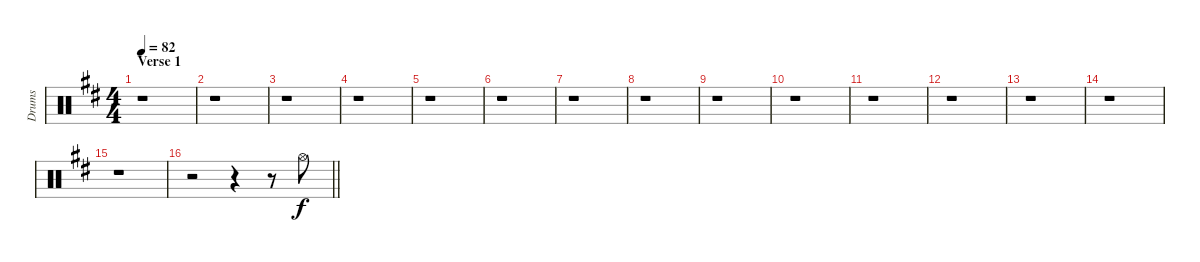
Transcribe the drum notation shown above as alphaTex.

\track ("Drums" "Drums") {instrument percussion}
\staff {score}
\articulation defaults
\ts (4 4)
\section ("" "Verse 1")
\tempo 82
\clef neutral
\ks d
r.1{dy f} |
r.1 |
r.1 |
r.1 |
r.1 |
r.1 |
r.1 |
r.1 |
r.1 |
r.1 |
r.1 |
r.1 |
r.1 |
r.1 |
r.1 |
\barLineRight lightlight
r.2 r.4 r.8 "Hi-Hat (open)".8
